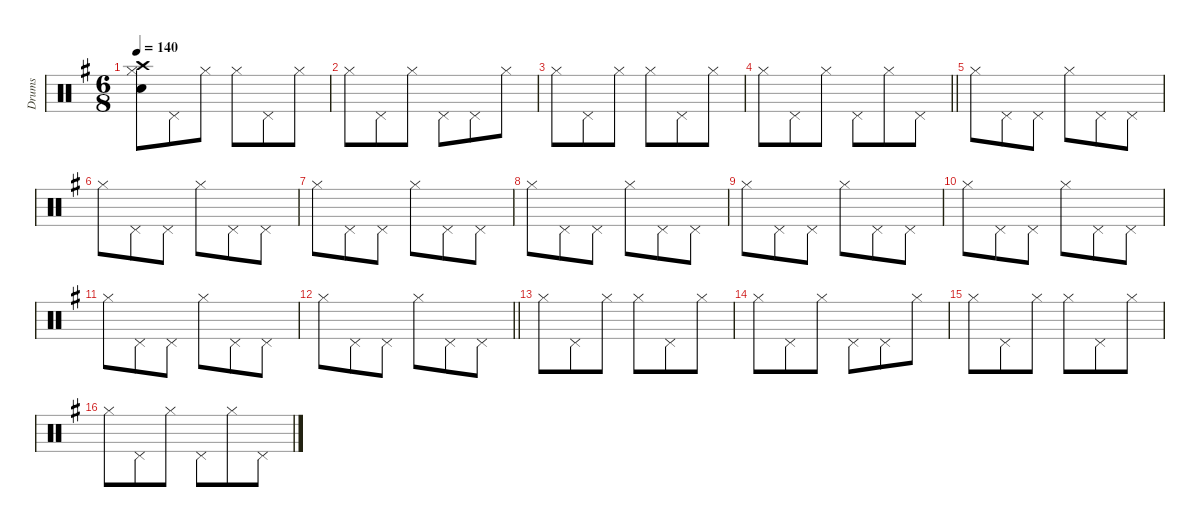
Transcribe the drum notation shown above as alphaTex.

\defaultSystemsLayout 8
\hideDynamics
\bracketExtendMode groupsimilarinstruments
\firstSystemTrackNameMode fullname
\otherSystemsTrackNameOrientation horizontal
\track ("Drums" "drm.") {defaultSystemsLayout 4 instrument percussion}
\staff {score}
\articulation defaults
\ts (6 8)
\tempo 140
\clef neutral
\ks g
("Hi-Hat (closed)"{acc forcenatural} "Snare (hit) 2"{acc forcenatural} "Crash high (hit)"{acc forcenatural}).8{dy f beam Down} "Pedal Hi-Hat (hit)"{acc forcenatural}.8{beam Down} "Hi-Hat (closed)"{acc forcenatural}.8{beam Down} "Hi-Hat (closed)"{acc forcenatural}.8{beam Down} "Pedal Hi-Hat (hit)"{acc forcenatural}.8{beam Down} "Hi-Hat (closed)"{acc forcenatural}.8{beam Down} |
"Hi-Hat (closed)"{acc forcenatural}.8{beam Down} "Pedal Hi-Hat (hit)"{acc forcenatural}.8{beam Down} "Hi-Hat (closed)"{acc forcenatural}.8{beam Down} "Pedal Hi-Hat (hit)"{acc forcenatural}.8{beam Down} "Pedal Hi-Hat (hit)"{acc forcenatural}.8{beam Down} "Hi-Hat (closed)"{acc forcenatural}.8{beam Down} |
"Hi-Hat (closed)"{acc forcenatural}.8{beam Down} "Pedal Hi-Hat (hit)"{acc forcenatural}.8{beam Down} "Hi-Hat (closed)"{acc forcenatural}.8{beam Down} "Hi-Hat (closed)"{acc forcenatural}.8{beam Down} "Pedal Hi-Hat (hit)"{acc forcenatural}.8{beam Down} "Hi-Hat (closed)"{acc forcenatural}.8{beam Down} |
\barLineRight lightlight "Hi-Hat (closed)"{acc forcenatural}.8{beam Down} "Pedal Hi-Hat (hit)"{acc forcenatural}.8{beam Down} "Hi-Hat (closed)"{acc forcenatural}.8{beam Down} "Pedal Hi-Hat (hit)"{acc forcenatural}.8{beam Down} "Hi-Hat (closed)"{acc forcenatural}.8{beam Down} "Pedal Hi-Hat (hit)"{acc forcenatural}.8{beam Down}
|
"Hi-Hat (closed)"{acc forcenatural}.8{beam Down} "Pedal Hi-Hat (hit)"{acc forcenatural}.8{beam Down} "Pedal Hi-Hat (hit)"{acc forcenatural}.8{beam Down} "Hi-Hat (closed)"{acc forcenatural}.8{beam Down} "Pedal Hi-Hat (hit)"{acc forcenatural}.8{beam Down} "Pedal Hi-Hat (hit)"{acc forcenatural}.8{beam Down} |
"Hi-Hat (closed)"{acc forcenatural}.8{beam Down} "Pedal Hi-Hat (hit)"{acc forcenatural}.8{beam Down} "Pedal Hi-Hat (hit)"{acc forcenatural}.8{beam Down} "Hi-Hat (closed)"{acc forcenatural}.8{beam Down} "Pedal Hi-Hat (hit)"{acc forcenatural}.8{beam Down} "Pedal Hi-Hat (hit)"{acc forcenatural}.8{beam Down} |
"Hi-Hat (closed)"{acc forcenatural}.8{beam Down} "Pedal Hi-Hat (hit)"{acc forcenatural}.8{beam Down} "Pedal Hi-Hat (hit)"{acc forcenatural}.8{beam Down} "Hi-Hat (closed)"{acc forcenatural}.8{beam Down} "Pedal Hi-Hat (hit)"{acc forcenatural}.8{beam Down} "Pedal Hi-Hat (hit)"{acc forcenatural}.8{beam Down} |
"Hi-Hat (closed)"{acc forcenatural}.8{beam Down} "Pedal Hi-Hat (hit)"{acc forcenatural}.8{beam Down} "Pedal Hi-Hat (hit)"{acc forcenatural}.8{beam Down} "Hi-Hat (closed)"{acc forcenatural}.8{beam Down} "Pedal Hi-Hat (hit)"{acc forcenatural}.8{beam Down} "Pedal Hi-Hat (hit)"{acc forcenatural}.8{beam Down} |
"Hi-Hat (closed)"{acc forcenatural}.8{beam Down} "Pedal Hi-Hat (hit)"{acc forcenatural}.8{beam Down} "Pedal Hi-Hat (hit)"{acc forcenatural}.8{beam Down} "Hi-Hat (closed)"{acc forcenatural}.8{beam Down} "Pedal Hi-Hat (hit)"{acc forcenatural}.8{beam Down} "Pedal Hi-Hat (hit)"{acc forcenatural}.8{beam Down} |
"Hi-Hat (closed)"{acc forcenatural}.8{beam Down} "Pedal Hi-Hat (hit)"{acc forcenatural}.8{beam Down} "Pedal Hi-Hat (hit)"{acc forcenatural}.8{beam Down} "Hi-Hat (closed)"{acc forcenatural}.8{beam Down} "Pedal Hi-Hat (hit)"{acc forcenatural}.8{beam Down} "Pedal Hi-Hat (hit)"{acc forcenatural}.8{beam Down} |
"Hi-Hat (closed)"{acc forcenatural}.8{beam Down} "Pedal Hi-Hat (hit)"{acc forcenatural}.8{beam Down} "Pedal Hi-Hat (hit)"{acc forcenatural}.8{beam Down} "Hi-Hat (closed)"{acc forcenatural}.8{beam Down} "Pedal Hi-Hat (hit)"{acc forcenatural}.8{beam Down} "Pedal Hi-Hat (hit)"{acc forcenatural}.8{beam Down} |
\barLineRight lightlight "Hi-Hat (closed)"{acc forcenatural}.8{beam Down} "Pedal Hi-Hat (hit)"{acc forcenatural}.8{beam Down} "Pedal Hi-Hat (hit)"{acc forcenatural}.8{beam Down} "Hi-Hat (closed)"{acc forcenatural}.8{beam Down} "Pedal Hi-Hat (hit)"{acc forcenatural}.8{beam Down} "Pedal Hi-Hat (hit)"{acc forcenatural}.8{beam Down}
|
"Hi-Hat (closed)"{acc forcenatural}.8{beam Down} "Pedal Hi-Hat (hit)"{acc forcenatural}.8{beam Down} "Hi-Hat (closed)"{acc forcenatural}.8{beam Down} "Hi-Hat (closed)"{acc forcenatural}.8{beam Down} "Pedal Hi-Hat (hit)"{acc forcenatural}.8{beam Down} "Hi-Hat (closed)"{acc forcenatural}.8{beam Down} |
"Hi-Hat (closed)"{acc forcenatural}.8{beam Down} "Pedal Hi-Hat (hit)"{acc forcenatural}.8{beam Down} "Hi-Hat (closed)"{acc forcenatural}.8{beam Down} "Pedal Hi-Hat (hit)"{acc forcenatural}.8{beam Down} "Pedal Hi-Hat (hit)"{acc forcenatural}.8{beam Down} "Hi-Hat (closed)"{acc forcenatural}.8{beam Down} |
"Hi-Hat (closed)"{acc forcenatural}.8{beam Down} "Pedal Hi-Hat (hit)"{acc forcenatural}.8{beam Down} "Hi-Hat (closed)"{acc forcenatural}.8{beam Down} "Hi-Hat (closed)"{acc forcenatural}.8{beam Down} "Pedal Hi-Hat (hit)"{acc forcenatural}.8{beam Down} "Hi-Hat (closed)"{acc forcenatural}.8{beam Down} |
"Hi-Hat (closed)"{acc forcenatural}.8{beam Down} "Pedal Hi-Hat (hit)"{acc forcenatural}.8{beam Down} "Hi-Hat (closed)"{acc forcenatural}.8{beam Down} "Pedal Hi-Hat (hit)"{acc forcenatural}.8{beam Down} "Hi-Hat (closed)"{acc forcenatural}.8{beam Down} "Pedal Hi-Hat (hit)"{acc forcenatural}.8{beam Down}
